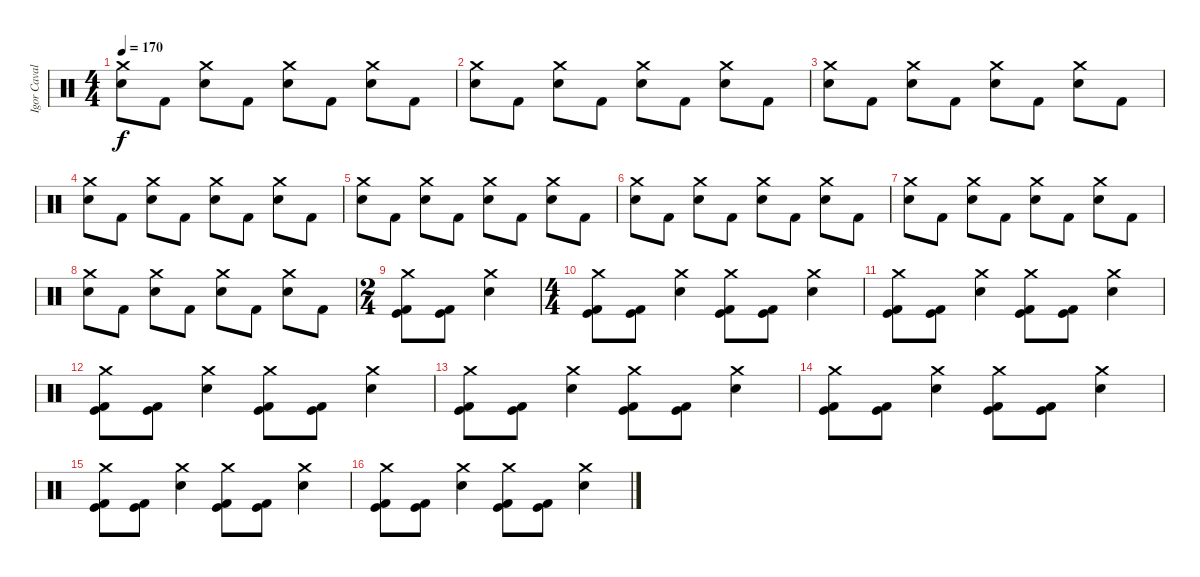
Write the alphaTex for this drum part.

\track ("Igor Cavalera" "Igor Caval") {instrument percussion}
\staff {score}
\articulation defaults
\ts (4 4)
\tempo 170
\clef neutral
\ks c
("Crash medium (hit)" "Snare (hit) 2").8{dy f} "Kick (hit) 2".8 ("Crash medium (hit)" "Snare (hit) 2").8 "Kick (hit) 2".8 ("Crash medium (hit)" "Snare (hit) 2").8 "Kick (hit) 2".8 ("Crash medium (hit)" "Snare (hit) 2").8 "Kick (hit) 2".8 |
("Crash medium (hit)" "Snare (hit) 2").8 "Kick (hit) 2".8 ("Crash medium (hit)" "Snare (hit) 2").8 "Kick (hit) 2".8 ("Crash medium (hit)" "Snare (hit) 2").8 "Kick (hit) 2".8 ("Crash medium (hit)" "Snare (hit) 2").8 "Kick (hit) 2".8 |
("Crash medium (hit)" "Snare (hit) 2").8 "Kick (hit) 2".8 ("Crash medium (hit)" "Snare (hit) 2").8 "Kick (hit) 2".8 ("Crash medium (hit)" "Snare (hit) 2").8 "Kick (hit) 2".8 ("Crash medium (hit)" "Snare (hit) 2").8 "Kick (hit) 2".8 |
("Crash medium (hit)" "Snare (hit) 2").8 "Kick (hit) 2".8 ("Crash medium (hit)" "Snare (hit) 2").8 "Kick (hit) 2".8 ("Crash medium (hit)" "Snare (hit) 2").8 "Kick (hit) 2".8 ("Crash medium (hit)" "Snare (hit) 2").8 "Kick (hit) 2".8 |
("Crash medium (hit)" "Snare (hit) 2").8 "Kick (hit) 2".8 ("Crash medium (hit)" "Snare (hit) 2").8 "Kick (hit) 2".8 ("Crash medium (hit)" "Snare (hit) 2").8 "Kick (hit) 2".8 ("Crash medium (hit)" "Snare (hit) 2").8 "Kick (hit) 2".8 |
("Crash medium (hit)" "Snare (hit) 2").8 "Kick (hit) 2".8 ("Crash medium (hit)" "Snare (hit) 2").8 "Kick (hit) 2".8 ("Crash medium (hit)" "Snare (hit) 2").8 "Kick (hit) 2".8 ("Crash medium (hit)" "Snare (hit) 2").8 "Kick (hit) 2".8 |
("Crash medium (hit)" "Snare (hit) 2").8 "Kick (hit) 2".8 ("Crash medium (hit)" "Snare (hit) 2").8 "Kick (hit) 2".8 ("Crash medium (hit)" "Snare (hit) 2").8 "Kick (hit) 2".8 ("Crash medium (hit)" "Snare (hit) 2").8 "Kick (hit) 2".8 |
("Crash medium (hit)" "Snare (hit) 2").8 "Kick (hit) 2".8 ("Crash medium (hit)" "Snare (hit) 2").8 "Kick (hit) 2".8 ("Crash medium (hit)" "Snare (hit) 2").8 "Kick (hit) 2".8 ("Crash medium (hit)" "Snare (hit) 2").8 "Kick (hit) 2".8 |
\ts (2 4)
("Crash medium (hit)" "Kick (hit)" "Kick (hit) 2").8 ("Kick (hit)" "Kick (hit) 2").8 ("Crash medium (hit)" "Snare (hit) 2").4 |
\ts (4 4)
("Crash medium (hit)" "Kick (hit)" "Kick (hit) 2").8 ("Kick (hit)" "Kick (hit) 2").8 ("Crash medium (hit)" "Snare (hit) 2").4 ("Crash medium (hit)" "Kick (hit)" "Kick (hit) 2").8 ("Kick (hit)" "Kick (hit) 2").8 ("Crash medium (hit)" "Snare (hit) 2").4 |
("Crash medium (hit)" "Kick (hit)" "Kick (hit) 2").8 ("Kick (hit)" "Kick (hit) 2").8 ("Crash medium (hit)" "Snare (hit) 2").4 ("Crash medium (hit)" "Kick (hit)" "Kick (hit) 2").8 ("Kick (hit)" "Kick (hit) 2").8 ("Crash medium (hit)" "Snare (hit) 2").4 |
("Crash medium (hit)" "Kick (hit)" "Kick (hit) 2").8 ("Kick (hit)" "Kick (hit) 2").8 ("Crash medium (hit)" "Snare (hit) 2").4 ("Crash medium (hit)" "Kick (hit)" "Kick (hit) 2").8 ("Kick (hit)" "Kick (hit) 2").8 ("Crash medium (hit)" "Snare (hit) 2").4 |
("Crash medium (hit)" "Kick (hit)" "Kick (hit) 2").8 ("Kick (hit)" "Kick (hit) 2").8 ("Crash medium (hit)" "Snare (hit) 2").4 ("Crash medium (hit)" "Kick (hit)" "Kick (hit) 2").8 ("Kick (hit)" "Kick (hit) 2").8 ("Crash medium (hit)" "Snare (hit) 2").4 |
("Crash medium (hit)" "Kick (hit)" "Kick (hit) 2").8 ("Kick (hit)" "Kick (hit) 2").8 ("Crash medium (hit)" "Snare (hit) 2").4 ("Crash medium (hit)" "Kick (hit)" "Kick (hit) 2").8 ("Kick (hit)" "Kick (hit) 2").8 ("Crash medium (hit)" "Snare (hit) 2").4 |
("Crash medium (hit)" "Kick (hit)" "Kick (hit) 2").8 ("Kick (hit)" "Kick (hit) 2").8 ("Crash medium (hit)" "Snare (hit) 2").4 ("Crash medium (hit)" "Kick (hit)" "Kick (hit) 2").8 ("Kick (hit)" "Kick (hit) 2").8 ("Crash medium (hit)" "Snare (hit) 2").4 |
("Crash medium (hit)" "Kick (hit)" "Kick (hit) 2").8 ("Kick (hit)" "Kick (hit) 2").8 ("Crash medium (hit)" "Snare (hit) 2").4 ("Crash medium (hit)" "Kick (hit)" "Kick (hit) 2").8 ("Kick (hit)" "Kick (hit) 2").8 ("Crash medium (hit)" "Snare (hit) 2").4
